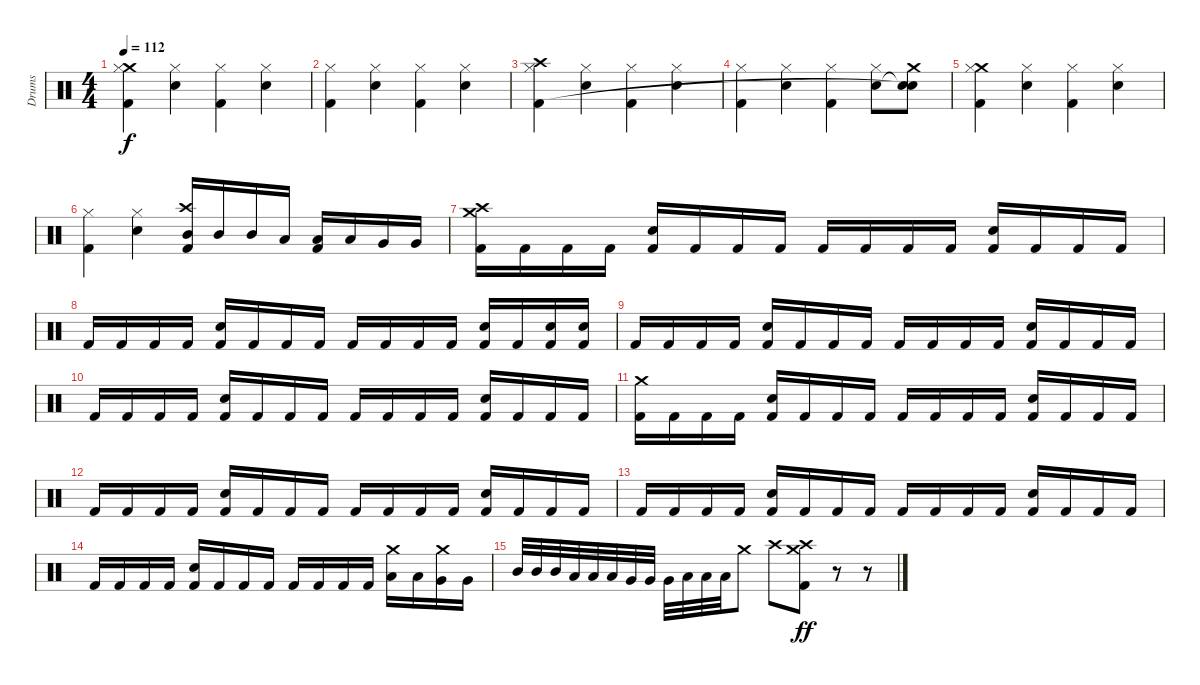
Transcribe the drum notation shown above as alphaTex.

\track ("Drums" "Drums") {instrument percussion}
\staff {score}
\articulation defaults
\ts (4 4)
\tempo 112
\clef neutral
\ks c
("Crash medium (hit)" "Hi-Hat (closed)" "Kick (hit) 2").4{dy f} ("Hi-Hat (closed)" "Snare (hit) 2").4 ("Hi-Hat (closed)" "Kick (hit) 2").4 ("Hi-Hat (closed)" "Snare (hit) 2").4 |
("Hi-Hat (closed)" "Kick (hit) 2").4 ("Hi-Hat (closed)" "Snare (hit) 2").4 ("Hi-Hat (closed)" "Kick (hit) 2").4 ("Hi-Hat (closed)" "Snare (hit) 2").4 |
("Crash high (hit)" "Hi-Hat (closed)" "Kick (hit) 2").4 ("Hi-Hat (closed)" "Snare (hit) 2").4 ("Hi-Hat (closed)" "Kick (hit) 2").4 ("Hi-Hat (closed)" "Snare (hit) 2").4 |
("Hi-Hat (closed)" "Kick (hit) 2").4 ("Hi-Hat (closed)" "Snare (hit) 2").4 ("Hi-Hat (closed)" "Kick (hit) 2").4 ("Hi-Hat (closed)" "Snare (hit) 2").8 ("Crash medium (hit)" "Snare (hit)"{t} "Snare (hit)"{t}).8 |
("Crash medium (hit)" "Hi-Hat (closed)" "Kick (hit) 2").4 ("Hi-Hat (closed)" "Snare (hit) 2").4 ("Hi-Hat (closed)" "Kick (hit) 2").4 ("Hi-Hat (closed)" "Snare (hit) 2").4 |
("Hi-Hat (closed)" "Kick (hit) 2").4 ("Hi-Hat (closed)" "Snare (hit) 2").4 ("Crash high (hit)" "Mid Tom (hit)" "Kick (hit) 2").16 "Mid Tom (hit)".16 "Mid Tom (hit)".16 "Low Tom (hit)".16 ("Low Tom (hit)" "Kick (hit) 2").16 "Low Tom (hit)".16 "Very Low Tom (hit)".16 "Very Low Tom (hit)".16 |
("Crash high (hit)" "Crash medium (hit)" "Kick (hit) 2").16 "Kick (hit) 2".16 "Kick (hit) 2".16 "Kick (hit) 2".16 ("Snare (hit) 2" "Kick (hit) 2").16 "Kick (hit) 2".16 "Kick (hit) 2".16 "Kick (hit) 2".16 "Kick (hit) 2".16 "Kick (hit) 2".16 "Kick (hit) 2".16 "Kick (hit) 2".16 ("Snare (hit) 2" "Kick (hit) 2").16 "Kick (hit) 2".16 "Kick (hit) 2".16 "Kick (hit) 2".16 |
"Kick (hit) 2".16 "Kick (hit) 2".16 "Kick (hit) 2".16 "Kick (hit) 2".16 ("Snare (hit) 2" "Kick (hit) 2").16 "Kick (hit) 2".16 "Kick (hit) 2".16 "Kick (hit) 2".16 "Kick (hit) 2".16 "Kick (hit) 2".16 "Kick (hit) 2".16 "Kick (hit) 2".16 ("Snare (hit) 2" "Kick (hit) 2").16 "Kick (hit) 2".16 ("Snare (hit) 2" "Kick (hit) 2").16 ("Snare (hit) 2" "Kick (hit) 2").16 |
"Kick (hit) 2".16 "Kick (hit) 2".16 "Kick (hit) 2".16 "Kick (hit) 2".16 ("Snare (hit) 2" "Kick (hit) 2").16 "Kick (hit) 2".16 "Kick (hit) 2".16 "Kick (hit) 2".16 "Kick (hit) 2".16 "Kick (hit) 2".16 "Kick (hit) 2".16 "Kick (hit) 2".16 ("Snare (hit) 2" "Kick (hit) 2").16 "Kick (hit) 2".16 "Kick (hit) 2".16 "Kick (hit) 2".16 |
"Kick (hit) 2".16 "Kick (hit) 2".16 "Kick (hit) 2".16 "Kick (hit) 2".16 ("Snare (hit) 2" "Kick (hit) 2").16 "Kick (hit) 2".16 "Kick (hit) 2".16 "Kick (hit) 2".16 "Kick (hit) 2".16 "Kick (hit) 2".16 "Kick (hit) 2".16 "Kick (hit) 2".16 ("Snare (hit) 2" "Kick (hit) 2").16 "Kick (hit) 2".16 "Kick (hit) 2".16 "Kick (hit) 2".16 |
("Crash medium (hit)" "Kick (hit) 2").16 "Kick (hit) 2".16 "Kick (hit) 2".16 "Kick (hit) 2".16 ("Snare (hit) 2" "Kick (hit) 2").16 "Kick (hit) 2".16 "Kick (hit) 2".16 "Kick (hit) 2".16 "Kick (hit) 2".16 "Kick (hit) 2".16 "Kick (hit) 2".16 "Kick (hit) 2".16 ("Snare (hit) 2" "Kick (hit) 2").16 "Kick (hit) 2".16 "Kick (hit) 2".16 "Kick (hit) 2".16 |
"Kick (hit) 2".16 "Kick (hit) 2".16 "Kick (hit) 2".16 "Kick (hit) 2".16 ("Snare (hit) 2" "Kick (hit) 2").16 "Kick (hit) 2".16 "Kick (hit) 2".16 "Kick (hit) 2".16 "Kick (hit) 2".16 "Kick (hit) 2".16 "Kick (hit) 2".16 "Kick (hit) 2".16 ("Snare (hit) 2" "Kick (hit) 2").16 "Kick (hit) 2".16 "Kick (hit) 2".16 "Kick (hit) 2".16 |
"Kick (hit) 2".16 "Kick (hit) 2".16 "Kick (hit) 2".16 "Kick (hit) 2".16 ("Snare (hit) 2" "Kick (hit) 2").16 "Kick (hit) 2".16 "Kick (hit) 2".16 "Kick (hit) 2".16 "Kick (hit) 2".16 "Kick (hit) 2".16 "Kick (hit) 2".16 "Kick (hit) 2".16 ("Snare (hit) 2" "Kick (hit) 2").16 "Kick (hit) 2".16 "Kick (hit) 2".16 "Kick (hit) 2".16 |
"Kick (hit) 2".16 "Kick (hit) 2".16 "Kick (hit) 2".16 "Kick (hit) 2".16 ("Snare (hit) 2" "Kick (hit) 2").16 "Kick (hit) 2".16 "Kick (hit) 2".16 "Kick (hit) 2".16 "Kick (hit) 2".16 "Kick (hit) 2".16 "Kick (hit) 2".16 "Kick (hit) 2".16 ("Crash medium (hit)" "Low Tom (hit)").16 "Low Tom (hit)".16 ("Crash medium (hit)" "Very Low Tom (hit)").16 "Very Low Tom (hit)".16 |
"Mid Tom (hit)".32 "Mid Tom (hit)".32 "Mid Tom (hit)".32 "Low Tom (hit)".32 "Low Tom (hit)".32 "Low Tom (hit)".32 "Very Low Tom (hit)".32 "Very Low Tom (hit)".32 "Very Low Tom (hit)".32 "Low Floor Tom (hit)".32 "Low Floor Tom (hit)".32 "Low Floor Tom (hit)".32 "Crash medium (hit)".8 "Crash high (hit)".8 ("Crash medium (hit)" "Crash high (hit)" "Kick (hit) 2").8{dy ff} r.8 r.8
